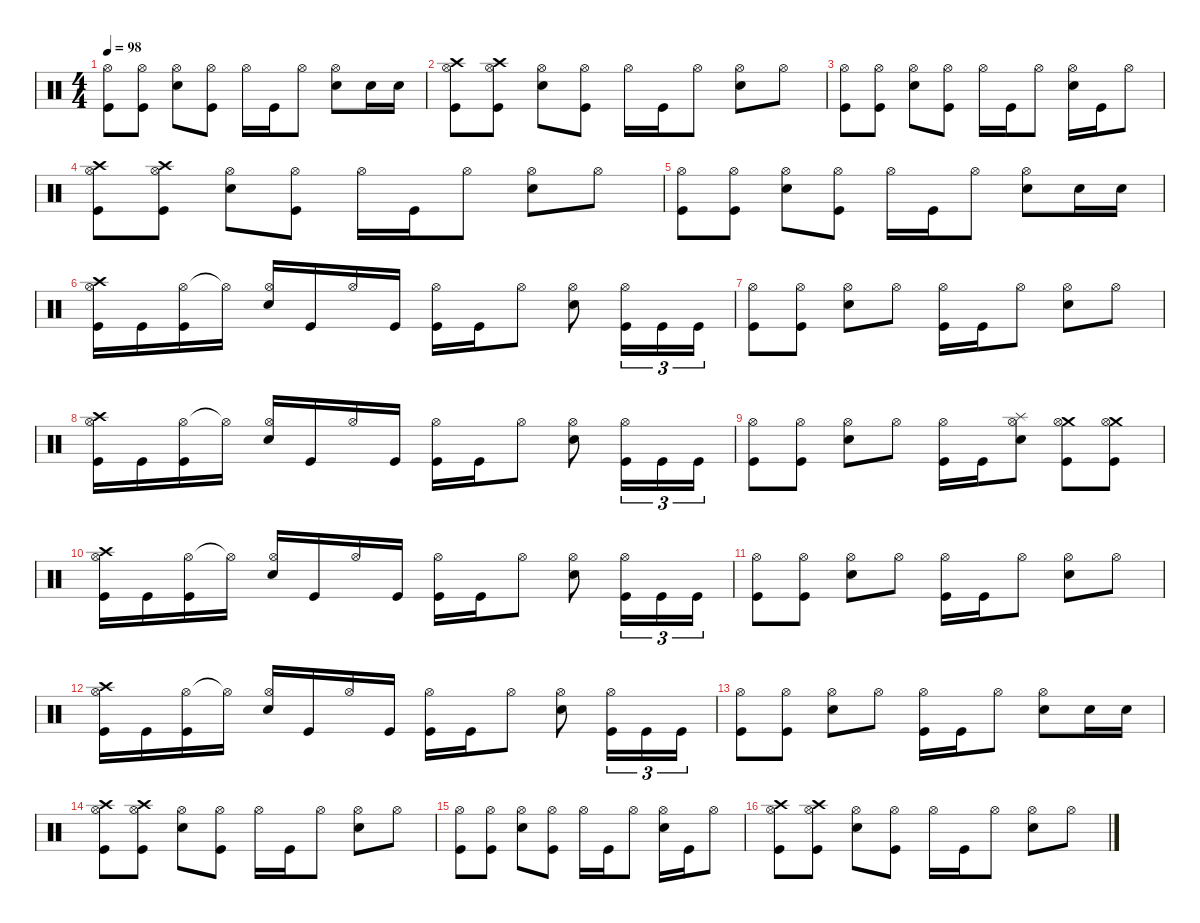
\defaultSystemsLayout 4
\hideDynamics
\bracketExtendMode nobrackets
\singleTrackTrackNamePolicy hidden
\multiTrackTrackNamePolicy hidden
\firstSystemTrackNameMode fullname
\otherSystemsTrackNameOrientation horizontal
\track ("Drums" "drm.") {instrument percussion}
\staff {score}
\articulation defaults
\ts (4 4)
\tempo 98
\clef neutral
\ks aminor
("Hi-Hat (open)" "Kick (hit)").8{dy f beam Down} ("Hi-Hat (open)" "Kick (hit)").8{beam Down} ("Hi-Hat (open)" "Snare (hit) 2").8{beam Down} ("Hi-Hat (open)" "Kick (hit)").8{beam Down} "Hi-Hat (open)".16{beam Down} "Kick (hit)".16{beam Down} "Hi-Hat (open)".8{beam Down} ("Hi-Hat (open)" "Snare (hit) 2").8{beam Down} "Snare (hit) 2".16{beam Down} "Snare (hit) 2".16{beam Down} |
("Crash high (hit)" "Hi-Hat (open)" "Kick (hit)").8{beam Down} ("Crash high (hit)" "Hi-Hat (open)" "Kick (hit)").8{beam Down} ("Hi-Hat (open)" "Snare (hit) 2").8{beam Down} ("Hi-Hat (open)" "Kick (hit)").8{beam Down} "Hi-Hat (open)".16{beam Down} "Kick (hit)".16{beam Down} "Hi-Hat (open)".8{beam Down} ("Hi-Hat (open)" "Snare (hit) 2").8{beam Down} "Hi-Hat (open)".8{beam Down} |
("Hi-Hat (open)" "Kick (hit)").8{beam Down} ("Hi-Hat (open)" "Kick (hit)").8{beam Down} ("Hi-Hat (open)" "Snare (hit) 2").8{beam Down} ("Hi-Hat (open)" "Kick (hit)").8{beam Down} "Hi-Hat (open)".16{beam Down} "Kick (hit)".16{beam Down} "Hi-Hat (open)".8{beam Down} ("Hi-Hat (open)" "Snare (hit) 2").16{beam Down} "Kick (hit)".16{beam Down} "Hi-Hat (open)".8{beam Down} |
("Crash high (hit)" "Hi-Hat (open)" "Kick (hit)").8{beam Down} ("Crash high (hit)" "Hi-Hat (open)" "Kick (hit)").8{beam Down} ("Hi-Hat (open)" "Snare (hit) 2").8{beam Down} ("Hi-Hat (open)" "Kick (hit)").8{beam Down} "Hi-Hat (open)".16{beam Down} "Kick (hit)".16{beam Down} "Hi-Hat (open)".8{beam Down} ("Hi-Hat (open)" "Snare (hit) 2").8{beam Down} "Hi-Hat (open)".8{beam Down} |
("Hi-Hat (open)" "Kick (hit)").8{beam Down} ("Hi-Hat (open)" "Kick (hit)").8{beam Down} ("Hi-Hat (open)" "Snare (hit) 2").8{beam Down} ("Hi-Hat (open)" "Kick (hit)").8{beam Down} "Hi-Hat (open)".16{beam Down} "Kick (hit)".16{beam Down} "Hi-Hat (open)".8{beam Down} ("Hi-Hat (open)" "Snare (hit) 2").8{beam Down} "Snare (hit) 2".16{beam Down} "Snare (hit) 2".16{beam Down} |
("Crash high (hit)" "Hi-Hat (open)" "Kick (hit)").16{beam Down} "Kick (hit)".16{beam Down} ("Hi-Hat (open)" "Kick (hit)").16{beam Down} "Hi-Hat (open)"{t}.16{beam Down} ("Hi-Hat (open)" "Snare (hit) 2").16{beam Up} "Kick (hit)".16{beam Up} "Hi-Hat (open)".16{beam Up} "Kick (hit)".16{beam Up} ("Hi-Hat (open)" "Kick (hit)").16{beam Down} "Kick (hit)".16{beam Down} "Hi-Hat (open)".8{beam Down} ("Hi-Hat (open)" "Snare (hit) 2").8{beam Down} ("Hi-Hat (open)" "Kick (hit)").16{tu (3 2) beam Down} "Kick (hit)".16{tu (3 2) beam Down} "Kick (hit)".16{tu (3 2) beam Down} |
("Hi-Hat (open)" "Kick (hit)").8{beam Down} ("Hi-Hat (open)" "Kick (hit)").8{beam Down} ("Hi-Hat (open)" "Snare (hit) 2").8{beam Down} "Hi-Hat (open)".8{beam Down} ("Hi-Hat (open)" "Kick (hit)").16{beam Down} "Kick (hit)".16{beam Down} "Hi-Hat (open)".8{beam Down} ("Hi-Hat (open)" "Snare (hit) 2").8{beam Down} "Hi-Hat (open)".8{beam Down} |
("Crash high (hit)" "Hi-Hat (open)" "Kick (hit)").16{beam Down} "Kick (hit)".16{beam Down} ("Hi-Hat (open)" "Kick (hit)").16{beam Down} "Hi-Hat (open)"{t}.16{beam Down} ("Hi-Hat (open)" "Snare (hit) 2").16{beam Up} "Kick (hit)".16{beam Up} "Hi-Hat (open)".16{beam Up} "Kick (hit)".16{beam Up} ("Hi-Hat (open)" "Kick (hit)").16{beam Down} "Kick (hit)".16{beam Down} "Hi-Hat (open)".8{beam Down} ("Hi-Hat (open)" "Snare (hit) 2").8{beam Down} ("Hi-Hat (open)" "Kick (hit)").16{tu (3 2) beam Down} "Kick (hit)".16{tu (3 2) beam Down} "Kick (hit)".16{tu (3 2) beam Down} |
("Hi-Hat (open)" "Kick (hit)").8{beam Down} ("Hi-Hat (open)" "Kick (hit)").8{beam Down} ("Hi-Hat (open)" "Snare (hit) 2").8{beam Down} "Hi-Hat (open)".8{beam Down} ("Hi-Hat (open)" "Kick (hit)").16{beam Down} "Kick (hit)".16{beam Down} ("Splash (hit)" "Hi-Hat (open)" "Snare (hit) 2").8{beam Down} ("Crash medium (hit)" "Hi-Hat (open)" "Kick (hit)").8{beam Down} ("Crash medium (hit)" "Hi-Hat (open)" "Kick (hit)").8{beam Down} |
("Crash high (hit)" "Hi-Hat (open)" "Kick (hit)").16{beam Down} "Kick (hit)".16{beam Down} ("Hi-Hat (open)" "Kick (hit)").16{beam Down} "Hi-Hat (open)"{t}.16{beam Down} ("Hi-Hat (open)" "Snare (hit) 2").16{beam Up} "Kick (hit)".16{beam Up} "Hi-Hat (open)".16{beam Up} "Kick (hit)".16{beam Up} ("Hi-Hat (open)" "Kick (hit)").16{beam Down} "Kick (hit)".16{beam Down} "Hi-Hat (open)".8{beam Down} ("Hi-Hat (open)" "Snare (hit) 2").8{beam Down} ("Hi-Hat (open)" "Kick (hit)").16{tu (3 2) beam Down} "Kick (hit)".16{tu (3 2) beam Down} "Kick (hit)".16{tu (3 2) beam Down} |
("Hi-Hat (open)" "Kick (hit)").8{beam Down} ("Hi-Hat (open)" "Kick (hit)").8{beam Down} ("Hi-Hat (open)" "Snare (hit) 2").8{beam Down} "Hi-Hat (open)".8{beam Down} ("Hi-Hat (open)" "Kick (hit)").16{beam Down} "Kick (hit)".16{beam Down} "Hi-Hat (open)".8{beam Down} ("Hi-Hat (open)" "Snare (hit) 2").8{beam Down} "Hi-Hat (open)".8{beam Down} |
("Crash high (hit)" "Hi-Hat (open)" "Kick (hit)").16{beam Down} "Kick (hit)".16{beam Down} ("Hi-Hat (open)" "Kick (hit)").16{beam Down} "Hi-Hat (open)"{t}.16{beam Down} ("Hi-Hat (open)" "Snare (hit) 2").16{beam Up} "Kick (hit)".16{beam Up} "Hi-Hat (open)".16{beam Up} "Kick (hit)".16{beam Up} ("Hi-Hat (open)" "Kick (hit)").16{beam Down} "Kick (hit)".16{beam Down} "Hi-Hat (open)".8{beam Down} ("Hi-Hat (open)" "Snare (hit) 2").8{beam Down} ("Hi-Hat (open)" "Kick (hit)").16{tu (3 2) beam Down} "Kick (hit)".16{tu (3 2) beam Down} "Kick (hit)".16{tu (3 2) beam Down} |
("Hi-Hat (open)" "Kick (hit)").8{beam Down} ("Hi-Hat (open)" "Kick (hit)").8{beam Down} ("Hi-Hat (open)" "Snare (hit) 2").8{beam Down} "Hi-Hat (open)".8{beam Down} ("Hi-Hat (open)" "Kick (hit)").16{beam Down} "Kick (hit)".16{beam Down} "Hi-Hat (open)".8{beam Down} ("Hi-Hat (open)" "Snare (hit) 2").8{beam Down} "Snare (hit) 2".16{dy mf beam Down} "Snare (hit) 2".16{dy f beam Down} |
("Crash high (hit)" "Hi-Hat (open)" "Kick (hit)").8{beam Down} ("Crash high (hit)" "Hi-Hat (open)" "Kick (hit)").8{beam Down} ("Hi-Hat (open)" "Snare (hit) 2").8{beam Down} ("Hi-Hat (open)" "Kick (hit)").8{beam Down} "Hi-Hat (open)".16{beam Down} "Kick (hit)".16{beam Down} "Hi-Hat (open)".8{beam Down} ("Hi-Hat (open)" "Snare (hit) 2").8{beam Down} "Hi-Hat (open)".8{beam Down} |
("Hi-Hat (open)" "Kick (hit)").8{beam Down} ("Hi-Hat (open)" "Kick (hit)").8{beam Down} ("Hi-Hat (open)" "Snare (hit) 2").8{beam Down} ("Hi-Hat (open)" "Kick (hit)").8{beam Down} "Hi-Hat (open)".16{beam Down} "Kick (hit)".16{beam Down} "Hi-Hat (open)".8{beam Down} ("Hi-Hat (open)" "Snare (hit) 2").16{beam Down} "Kick (hit)".16{beam Down} "Hi-Hat (open)".8{beam Down} |
("Crash high (hit)" "Hi-Hat (open)" "Kick (hit)").8{beam Down} ("Crash high (hit)" "Hi-Hat (open)" "Kick (hit)").8{beam Down} ("Hi-Hat (open)" "Snare (hit) 2").8{beam Down} ("Hi-Hat (open)" "Kick (hit)").8{beam Down} "Hi-Hat (open)".16{beam Down} "Kick (hit)".16{beam Down} "Hi-Hat (open)".8{beam Down} ("Hi-Hat (open)" "Snare (hit) 2").8{beam Down} "Hi-Hat (open)".8{beam Down}
